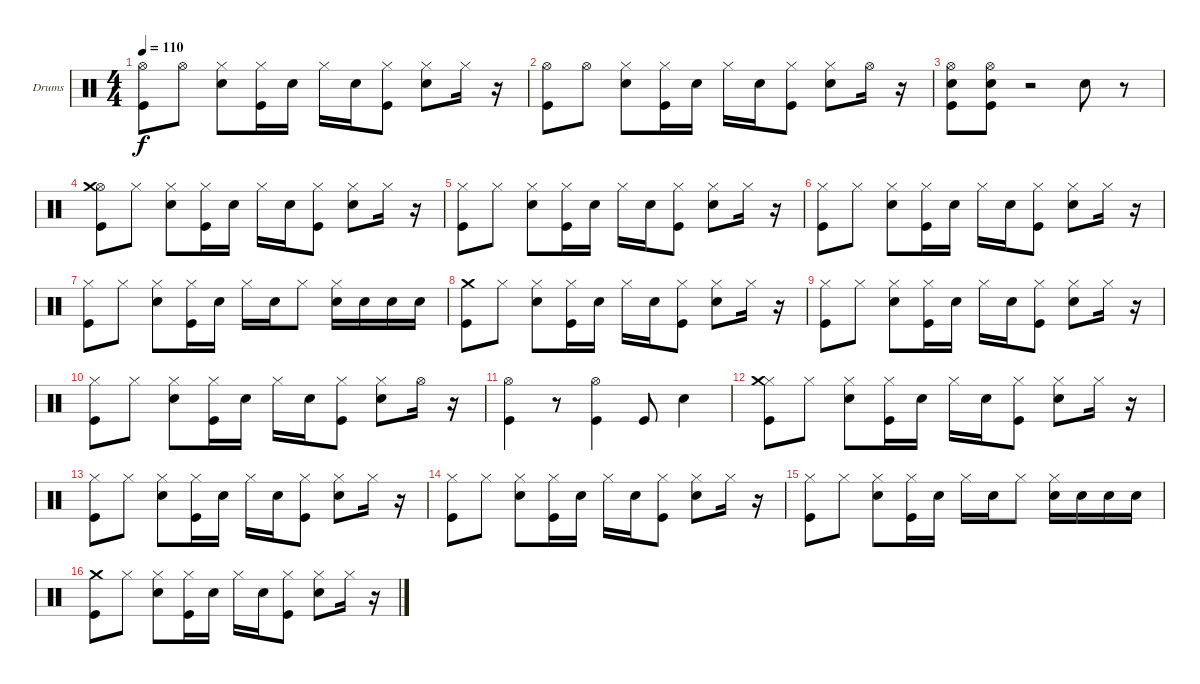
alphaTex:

\bracketExtendMode groupsimilarinstruments
\firstSystemTrackNameOrientation horizontal
\otherSystemsTrackNameOrientation horizontal
\track ("Drumkit" "Drums") {instrument percussion}
\staff {score}
\articulation defaults
\ts (4 4)
\tempo 110
\clef neutral
\ks c
("Hi-Hat (open)" "Kick (hit)").8{dy f} "Hi-Hat (open)".8 ("Hi-Hat (closed)" "Snare (hit) 2").8 ("Hi-Hat (closed)" "Kick (hit)").16 "Snare (hit) 2".16 "Hi-Hat (closed)".16 "Snare (hit) 2".16 ("Hi-Hat (closed)" "Kick (hit)").8 ("Hi-Hat (closed)" "Snare (hit) 2").8 "Hi-Hat (closed)".16 r.16 |
("Hi-Hat (open)" "Kick (hit)").8 "Hi-Hat (open)".8 ("Hi-Hat (closed)" "Snare (hit) 2").8 ("Hi-Hat (closed)" "Kick (hit)").16 "Snare (hit) 2".16 "Hi-Hat (closed)".16 "Snare (hit) 2".16 ("Hi-Hat (closed)" "Kick (hit)").8 ("Hi-Hat (closed)" "Snare (hit) 2").8 "Hi-Hat (open)".16 r.16 |
("Kick (hit)" "Snare (hit) 2" "Hi-Hat (open)").8 ("Kick (hit)" "Snare (hit) 2" "Hi-Hat (open)").8 r.2 "Snare (hit) 2".8 r.8 |
("Hi-Hat (open)" "Crash medium (hit)" "Kick (hit)").8 "Hi-Hat (closed)".8 ("Hi-Hat (closed)" "Snare (hit) 2").8 ("Hi-Hat (closed)" "Kick (hit)").16 "Snare (hit) 2".16 "Hi-Hat (closed)".16 "Snare (hit) 2".16 ("Hi-Hat (closed)" "Kick (hit)").8 ("Hi-Hat (closed)" "Snare (hit) 2").8 "Hi-Hat (closed)".16 r.16 |
("Hi-Hat (closed)" "Kick (hit)").8 "Hi-Hat (closed)".8 ("Hi-Hat (closed)" "Snare (hit) 2").8 ("Hi-Hat (closed)" "Kick (hit)").16 "Snare (hit) 2".16 "Hi-Hat (closed)".16 "Snare (hit) 2".16 ("Hi-Hat (closed)" "Kick (hit)").8 ("Hi-Hat (closed)" "Snare (hit) 2").8 "Hi-Hat (closed)".16 r.16 |
("Hi-Hat (closed)" "Kick (hit)").8 "Hi-Hat (closed)".8 ("Hi-Hat (closed)" "Snare (hit) 2").8 ("Hi-Hat (closed)" "Kick (hit)").16 "Snare (hit) 2".16 "Hi-Hat (closed)".16 "Snare (hit) 2".16 ("Hi-Hat (closed)" "Kick (hit)").8 ("Hi-Hat (closed)" "Snare (hit) 2").8 "Hi-Hat (closed)".16 r.16 |
("Hi-Hat (closed)" "Kick (hit)").8 "Hi-Hat (closed)".8 ("Hi-Hat (closed)" "Snare (hit) 2").8 ("Hi-Hat (closed)" "Kick (hit)").16 "Snare (hit) 2".16 "Hi-Hat (closed)".16 "Snare (hit) 2".16 "Hi-Hat (closed)".8 ("Hi-Hat (closed)" "Snare (hit) 2").16 "Snare (hit) 2".16 "Snare (hit) 2".16 "Snare (hit) 2".16 |
("Crash medium (hit)" "Kick (hit)").8 "Hi-Hat (closed)".8 ("Hi-Hat (closed)" "Snare (hit) 2").8 ("Hi-Hat (closed)" "Kick (hit)").16 "Snare (hit) 2".16 "Hi-Hat (closed)".16 "Snare (hit) 2".16 ("Hi-Hat (closed)" "Kick (hit)").8 ("Hi-Hat (closed)" "Snare (hit) 2").8 "Hi-Hat (closed)".16 r.16 |
("Hi-Hat (closed)" "Kick (hit)").8 "Hi-Hat (closed)".8 ("Hi-Hat (closed)" "Snare (hit) 2").8 ("Hi-Hat (closed)" "Kick (hit)").16 "Snare (hit) 2".16 "Hi-Hat (closed)".16 "Snare (hit) 2".16 ("Hi-Hat (closed)" "Kick (hit)").8 ("Hi-Hat (closed)" "Snare (hit) 2").8 "Hi-Hat (closed)".16 r.16 |
("Hi-Hat (closed)" "Kick (hit)").8 "Hi-Hat (closed)".8 ("Hi-Hat (closed)" "Snare (hit) 2").8 ("Hi-Hat (closed)" "Kick (hit)").16 "Snare (hit) 2".16 "Hi-Hat (closed)".16 "Snare (hit) 2".16 ("Hi-Hat (closed)" "Kick (hit)").8 ("Hi-Hat (closed)" "Snare (hit) 2").8 "Hi-Hat (open)".16 r.16 |
("Hi-Hat (open)" "Kick (hit)").4 r.8 ("Hi-Hat (open)" "Kick (hit)").4 "Kick (hit)".8 "Snare (hit) 2".4 |
("Hi-Hat (closed)" "Crash medium (hit)" "Kick (hit)").8 "Hi-Hat (closed)".8 ("Hi-Hat (closed)" "Snare (hit) 2").8 ("Hi-Hat (closed)" "Kick (hit)").16 "Snare (hit) 2".16 "Hi-Hat (closed)".16 "Snare (hit) 2".16 ("Hi-Hat (closed)" "Kick (hit)").8 ("Hi-Hat (closed)" "Snare (hit) 2").8 "Hi-Hat (closed)".16 r.16 |
("Hi-Hat (closed)" "Kick (hit)").8 "Hi-Hat (closed)".8 ("Hi-Hat (closed)" "Snare (hit) 2").8 ("Hi-Hat (closed)" "Kick (hit)").16 "Snare (hit) 2".16 "Hi-Hat (closed)".16 "Snare (hit) 2".16 ("Hi-Hat (closed)" "Kick (hit)").8 ("Hi-Hat (closed)" "Snare (hit) 2").8 "Hi-Hat (closed)".16 r.16 |
("Hi-Hat (closed)" "Kick (hit)").8 "Hi-Hat (closed)".8 ("Hi-Hat (closed)" "Snare (hit) 2").8 ("Hi-Hat (closed)" "Kick (hit)").16 "Snare (hit) 2".16 "Hi-Hat (closed)".16 "Snare (hit) 2".16 ("Hi-Hat (closed)" "Kick (hit)").8 ("Hi-Hat (closed)" "Snare (hit) 2").8 "Hi-Hat (closed)".16 r.16 |
("Hi-Hat (closed)" "Kick (hit)").8 "Hi-Hat (closed)".8 ("Hi-Hat (closed)" "Snare (hit) 2").8 ("Hi-Hat (closed)" "Kick (hit)").16 "Snare (hit) 2".16 "Hi-Hat (closed)".16 "Snare (hit) 2".16 "Hi-Hat (closed)".8 ("Hi-Hat (closed)" "Snare (hit) 2").16 "Snare (hit) 2".16 "Snare (hit) 2".16 "Snare (hit) 2".16 |
("Crash medium (hit)" "Kick (hit)").8 "Hi-Hat (closed)".8 ("Hi-Hat (closed)" "Snare (hit) 2").8 ("Hi-Hat (closed)" "Kick (hit)").16 "Snare (hit) 2".16 "Hi-Hat (closed)".16 "Snare (hit) 2".16 ("Hi-Hat (closed)" "Kick (hit)").8 ("Hi-Hat (closed)" "Snare (hit) 2").8 "Hi-Hat (closed)".16 r.16
